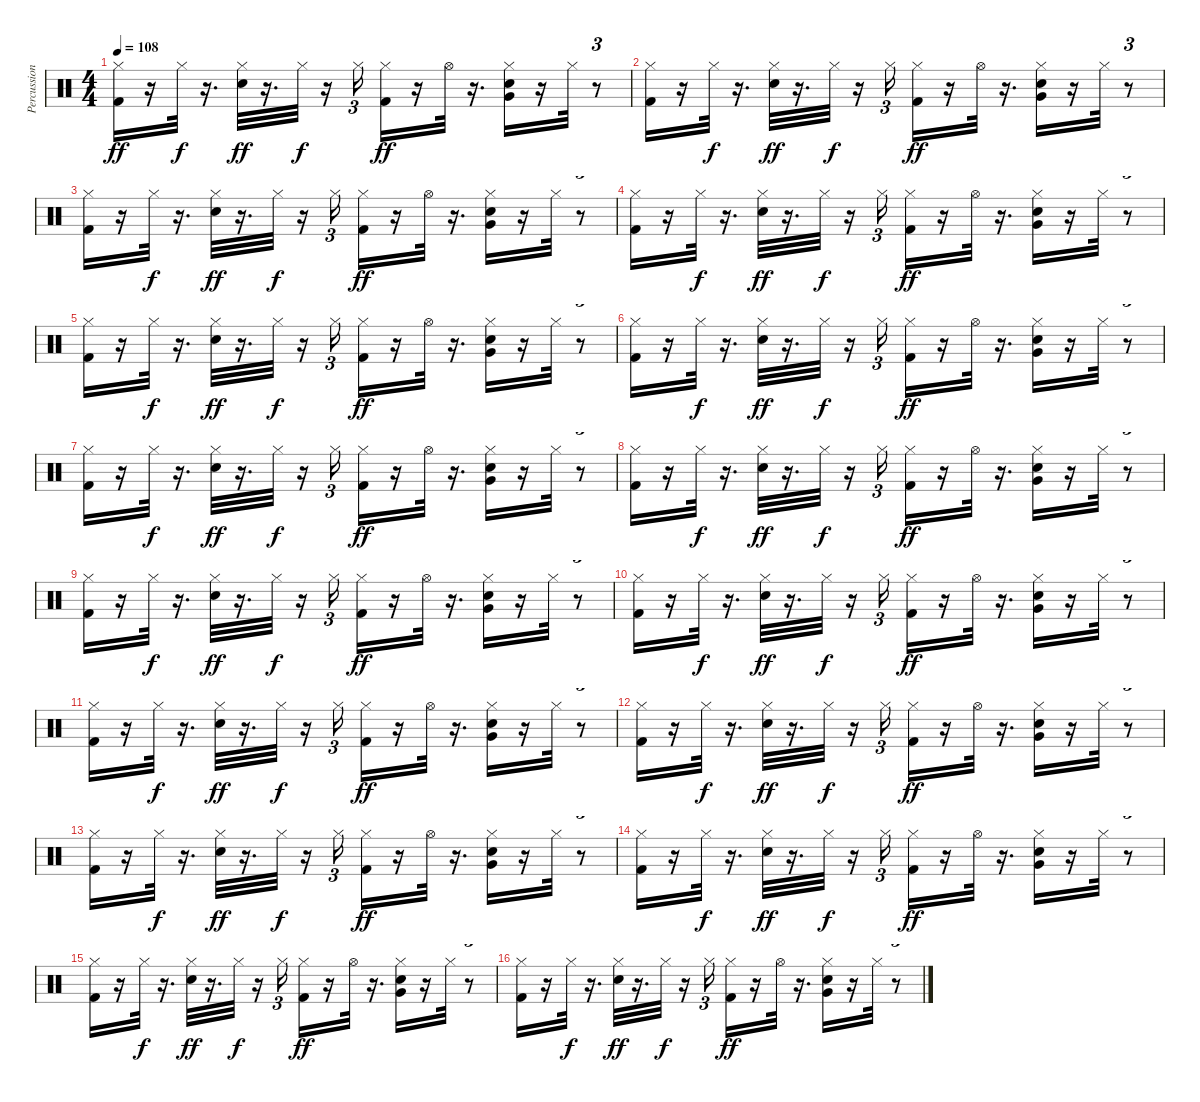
\track ("Percussion" "Percussion") {instrument percussion}
\staff {score}
\articulation defaults
\ts (4 4)
\tempo 108
\clef neutral
\ks c
("Kick (hit) 2" "Hi-Hat (closed)").16{dy ff volume 12} r.16 "Hi-Hat (closed)".32{dy f} r.16{d} ("Snare (hit) 2" "Hi-Hat (closed)").32{dy ff} r.16{d} "Hi-Hat (closed)".32{dy f} r.16 "Hi-Hat (closed)".16{tu (3 2)} ("Hi-Hat (closed)" "Kick (hit) 2").16{dy ff} r.16 "Hi-Hat (open)".32 r.16{d} ("Snare (hit) 2" "Very Low Tom (hit)" "Hi-Hat (closed)").16 r.16 "Hi-Hat (closed)".32 r.8{tu (3 2)} |
("Kick (hit) 2" "Hi-Hat (closed)").16{volume 12} r.16 "Hi-Hat (closed)".32{dy f} r.16{d} ("Snare (hit) 2" "Hi-Hat (closed)").32{dy ff} r.16{d} "Hi-Hat (closed)".32{dy f} r.16 "Hi-Hat (closed)".16{tu (3 2)} ("Hi-Hat (closed)" "Kick (hit) 2").16{dy ff} r.16 "Hi-Hat (open)".32 r.16{d} ("Snare (hit) 2" "Very Low Tom (hit)" "Hi-Hat (closed)").16 r.16 "Hi-Hat (closed)".32 r.8{tu (3 2)} |
("Kick (hit) 2" "Hi-Hat (closed)").16{volume 12} r.16 "Hi-Hat (closed)".32{dy f} r.16{d} ("Snare (hit) 2" "Hi-Hat (closed)").32{dy ff} r.16{d} "Hi-Hat (closed)".32{dy f} r.16 "Hi-Hat (closed)".16{tu (3 2)} ("Hi-Hat (closed)" "Kick (hit) 2").16{dy ff} r.16 "Hi-Hat (open)".32 r.16{d} ("Snare (hit) 2" "Very Low Tom (hit)" "Hi-Hat (closed)").16 r.16 "Hi-Hat (closed)".32 r.8{tu (3 2)} |
("Kick (hit) 2" "Hi-Hat (closed)").16{volume 12} r.16 "Hi-Hat (closed)".32{dy f} r.16{d} ("Snare (hit) 2" "Hi-Hat (closed)").32{dy ff} r.16{d} "Hi-Hat (closed)".32{dy f} r.16 "Hi-Hat (closed)".16{tu (3 2)} ("Hi-Hat (closed)" "Kick (hit) 2").16{dy ff} r.16 "Hi-Hat (open)".32 r.16{d} ("Snare (hit) 2" "Very Low Tom (hit)" "Hi-Hat (closed)").16 r.16 "Hi-Hat (closed)".32 r.8{tu (3 2)} |
("Kick (hit) 2" "Hi-Hat (closed)").16{volume 12} r.16 "Hi-Hat (closed)".32{dy f} r.16{d} ("Snare (hit) 2" "Hi-Hat (closed)").32{dy ff} r.16{d} "Hi-Hat (closed)".32{dy f} r.16 "Hi-Hat (closed)".16{tu (3 2)} ("Hi-Hat (closed)" "Kick (hit) 2").16{dy ff} r.16 "Hi-Hat (open)".32 r.16{d} ("Snare (hit) 2" "Very Low Tom (hit)" "Hi-Hat (closed)").16 r.16 "Hi-Hat (closed)".32 r.8{tu (3 2)} |
("Kick (hit) 2" "Hi-Hat (closed)").16{volume 12} r.16 "Hi-Hat (closed)".32{dy f} r.16{d} ("Snare (hit) 2" "Hi-Hat (closed)").32{dy ff} r.16{d} "Hi-Hat (closed)".32{dy f} r.16 "Hi-Hat (closed)".16{tu (3 2)} ("Hi-Hat (closed)" "Kick (hit) 2").16{dy ff} r.16 "Hi-Hat (open)".32 r.16{d} ("Snare (hit) 2" "Very Low Tom (hit)" "Hi-Hat (closed)").16 r.16 "Hi-Hat (closed)".32 r.8{tu (3 2)} |
("Kick (hit) 2" "Hi-Hat (closed)").16{volume 12} r.16 "Hi-Hat (closed)".32{dy f} r.16{d} ("Snare (hit) 2" "Hi-Hat (closed)").32{dy ff} r.16{d} "Hi-Hat (closed)".32{dy f} r.16 "Hi-Hat (closed)".16{tu (3 2)} ("Hi-Hat (closed)" "Kick (hit) 2").16{dy ff} r.16 "Hi-Hat (open)".32 r.16{d} ("Snare (hit) 2" "Very Low Tom (hit)" "Hi-Hat (closed)").16 r.16 "Hi-Hat (closed)".32 r.8{tu (3 2)} |
("Kick (hit) 2" "Hi-Hat (closed)").16{volume 12} r.16 "Hi-Hat (closed)".32{dy f} r.16{d} ("Snare (hit) 2" "Hi-Hat (closed)").32{dy ff} r.16{d} "Hi-Hat (closed)".32{dy f} r.16 "Hi-Hat (closed)".16{tu (3 2)} ("Hi-Hat (closed)" "Kick (hit) 2").16{dy ff} r.16 "Hi-Hat (open)".32 r.16{d} ("Snare (hit) 2" "Very Low Tom (hit)" "Hi-Hat (closed)").16 r.16 "Hi-Hat (closed)".32 r.8{tu (3 2)} |
("Kick (hit) 2" "Hi-Hat (closed)").16{volume 12} r.16 "Hi-Hat (closed)".32{dy f} r.16{d} ("Snare (hit) 2" "Hi-Hat (closed)").32{dy ff} r.16{d} "Hi-Hat (closed)".32{dy f} r.16 "Hi-Hat (closed)".16{tu (3 2)} ("Hi-Hat (closed)" "Kick (hit) 2").16{dy ff} r.16 "Hi-Hat (open)".32 r.16{d} ("Snare (hit) 2" "Very Low Tom (hit)" "Hi-Hat (closed)").16 r.16 "Hi-Hat (closed)".32 r.8{tu (3 2)} |
("Kick (hit) 2" "Hi-Hat (closed)").16{volume 12} r.16 "Hi-Hat (closed)".32{dy f} r.16{d} ("Snare (hit) 2" "Hi-Hat (closed)").32{dy ff} r.16{d} "Hi-Hat (closed)".32{dy f} r.16 "Hi-Hat (closed)".16{tu (3 2)} ("Hi-Hat (closed)" "Kick (hit) 2").16{dy ff} r.16 "Hi-Hat (open)".32 r.16{d} ("Snare (hit) 2" "Very Low Tom (hit)" "Hi-Hat (closed)").16 r.16 "Hi-Hat (closed)".32 r.8{tu (3 2)} |
("Kick (hit) 2" "Hi-Hat (closed)").16{volume 12} r.16 "Hi-Hat (closed)".32{dy f} r.16{d} ("Snare (hit) 2" "Hi-Hat (closed)").32{dy ff} r.16{d} "Hi-Hat (closed)".32{dy f} r.16 "Hi-Hat (closed)".16{tu (3 2)} ("Hi-Hat (closed)" "Kick (hit) 2").16{dy ff} r.16 "Hi-Hat (open)".32 r.16{d} ("Snare (hit) 2" "Very Low Tom (hit)" "Hi-Hat (closed)").16 r.16 "Hi-Hat (closed)".32 r.8{tu (3 2)} |
("Kick (hit) 2" "Hi-Hat (closed)").16{volume 12} r.16 "Hi-Hat (closed)".32{dy f} r.16{d} ("Snare (hit) 2" "Hi-Hat (closed)").32{dy ff} r.16{d} "Hi-Hat (closed)".32{dy f} r.16 "Hi-Hat (closed)".16{tu (3 2)} ("Hi-Hat (closed)" "Kick (hit) 2").16{dy ff} r.16 "Hi-Hat (open)".32 r.16{d} ("Snare (hit) 2" "Very Low Tom (hit)" "Hi-Hat (closed)").16 r.16 "Hi-Hat (closed)".32 r.8{tu (3 2)} |
("Kick (hit) 2" "Hi-Hat (closed)").16{volume 12} r.16 "Hi-Hat (closed)".32{dy f} r.16{d} ("Snare (hit) 2" "Hi-Hat (closed)").32{dy ff} r.16{d} "Hi-Hat (closed)".32{dy f} r.16 "Hi-Hat (closed)".16{tu (3 2)} ("Hi-Hat (closed)" "Kick (hit) 2").16{dy ff} r.16 "Hi-Hat (open)".32 r.16{d} ("Snare (hit) 2" "Very Low Tom (hit)" "Hi-Hat (closed)").16 r.16 "Hi-Hat (closed)".32 r.8{tu (3 2)} |
("Kick (hit) 2" "Hi-Hat (closed)").16{volume 12} r.16 "Hi-Hat (closed)".32{dy f} r.16{d} ("Snare (hit) 2" "Hi-Hat (closed)").32{dy ff} r.16{d} "Hi-Hat (closed)".32{dy f} r.16 "Hi-Hat (closed)".16{tu (3 2)} ("Hi-Hat (closed)" "Kick (hit) 2").16{dy ff} r.16 "Hi-Hat (open)".32 r.16{d} ("Snare (hit) 2" "Very Low Tom (hit)" "Hi-Hat (closed)").16 r.16 "Hi-Hat (closed)".32 r.8{tu (3 2)} |
("Kick (hit) 2" "Hi-Hat (closed)").16{volume 12} r.16 "Hi-Hat (closed)".32{dy f} r.16{d} ("Snare (hit) 2" "Hi-Hat (closed)").32{dy ff} r.16{d} "Hi-Hat (closed)".32{dy f} r.16 "Hi-Hat (closed)".16{tu (3 2)} ("Hi-Hat (closed)" "Kick (hit) 2").16{dy ff} r.16 "Hi-Hat (open)".32 r.16{d} ("Snare (hit) 2" "Very Low Tom (hit)" "Hi-Hat (closed)").16 r.16 "Hi-Hat (closed)".32 r.8{tu (3 2)} |
("Kick (hit) 2" "Hi-Hat (closed)").16{volume 12} r.16 "Hi-Hat (closed)".32{dy f} r.16{d} ("Snare (hit) 2" "Hi-Hat (closed)").32{dy ff} r.16{d} "Hi-Hat (closed)".32{dy f} r.16 "Hi-Hat (closed)".16{tu (3 2)} ("Hi-Hat (closed)" "Kick (hit) 2").16{dy ff} r.16 "Hi-Hat (open)".32 r.16{d} ("Snare (hit) 2" "Very Low Tom (hit)" "Hi-Hat (closed)").16 r.16 "Hi-Hat (closed)".32 r.8{tu (3 2)}
